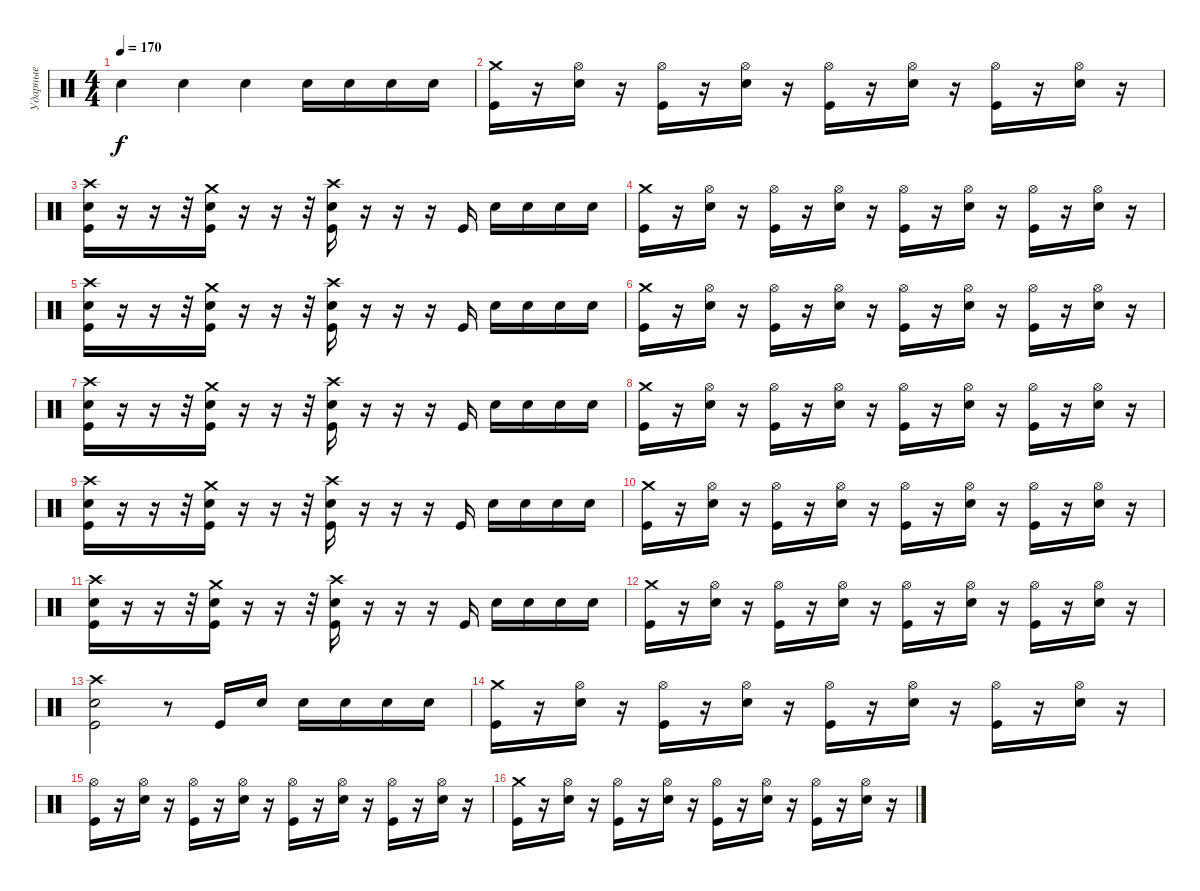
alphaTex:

\track ("Ударные" "Ударные") {instrument percussion}
\staff {score}
\articulation defaults
\ts (4 4)
\tempo 170
\clef neutral
\ks c "Electric Snare (hit)".4{dy f} "Electric Snare (hit)".4 "Electric Snare (hit)".4 "Electric Snare (hit)".16 "Electric Snare (hit)".16 "Electric Snare (hit)".16 "Electric Snare (hit)".16
|
("Crash medium (hit)" "Kick (hit)").16 r.16 ("Hi-Hat (open)" "Electric Snare (hit)").16 r.16 ("Hi-Hat (open)" "Kick (hit)").16 r.16 ("Hi-Hat (open)" "Electric Snare (hit)").16 r.16 ("Hi-Hat (open)" "Kick (hit)").16 r.16 ("Hi-Hat (open)" "Electric Snare (hit)").16 r.16 ("Hi-Hat (open)" "Kick (hit)").16 r.16 ("Hi-Hat (open)" "Electric Snare (hit)").16 r.16 |
("Crash high (hit)" "Electric Snare (hit)" "Kick (hit)").16 r.16 r.16 r.32 ("Crash medium (hit)" "Electric Snare (hit)" "Kick (hit)").16 r.16 r.16 r.32 ("Crash high (hit)" "Electric Snare (hit)" "Kick (hit)").16 r.16 r.16 r.16 "Kick (hit)".16 "Electric Snare (hit)".16 "Electric Snare (hit)".16 "Electric Snare (hit)".16 "Electric Snare (hit)".16 |
("Crash medium (hit)" "Kick (hit)").16 r.16 ("Hi-Hat (open)" "Electric Snare (hit)").16 r.16 ("Hi-Hat (open)" "Kick (hit)").16 r.16 ("Hi-Hat (open)" "Electric Snare (hit)").16 r.16 ("Hi-Hat (open)" "Kick (hit)").16 r.16 ("Hi-Hat (open)" "Electric Snare (hit)").16 r.16 ("Hi-Hat (open)" "Kick (hit)").16 r.16 ("Hi-Hat (open)" "Electric Snare (hit)").16 r.16 |
("Crash high (hit)" "Electric Snare (hit)" "Kick (hit)").16 r.16 r.16 r.32 ("Crash medium (hit)" "Electric Snare (hit)" "Kick (hit)").16 r.16 r.16 r.32 ("Crash high (hit)" "Electric Snare (hit)" "Kick (hit)").16 r.16 r.16 r.16 "Kick (hit)".16 "Electric Snare (hit)".16 "Electric Snare (hit)".16 "Electric Snare (hit)".16 "Electric Snare (hit)".16 |
("Crash medium (hit)" "Kick (hit)").16 r.16 ("Hi-Hat (open)" "Electric Snare (hit)").16 r.16 ("Hi-Hat (open)" "Kick (hit)").16 r.16 ("Hi-Hat (open)" "Electric Snare (hit)").16 r.16 ("Hi-Hat (open)" "Kick (hit)").16 r.16 ("Hi-Hat (open)" "Electric Snare (hit)").16 r.16 ("Hi-Hat (open)" "Kick (hit)").16 r.16 ("Hi-Hat (open)" "Electric Snare (hit)").16 r.16 |
("Crash high (hit)" "Electric Snare (hit)" "Kick (hit)").16 r.16 r.16 r.32 ("Crash medium (hit)" "Electric Snare (hit)" "Kick (hit)").16 r.16 r.16 r.32 ("Crash high (hit)" "Electric Snare (hit)" "Kick (hit)").16 r.16 r.16 r.16 "Kick (hit)".16 "Electric Snare (hit)".16 "Electric Snare (hit)".16 "Electric Snare (hit)".16 "Electric Snare (hit)".16 |
("Crash medium (hit)" "Kick (hit)").16 r.16 ("Hi-Hat (open)" "Electric Snare (hit)").16 r.16 ("Hi-Hat (open)" "Kick (hit)").16 r.16 ("Hi-Hat (open)" "Electric Snare (hit)").16 r.16 ("Hi-Hat (open)" "Kick (hit)").16 r.16 ("Hi-Hat (open)" "Electric Snare (hit)").16 r.16 ("Hi-Hat (open)" "Kick (hit)").16 r.16 ("Hi-Hat (open)" "Electric Snare (hit)").16 r.16 |
("Crash high (hit)" "Electric Snare (hit)" "Kick (hit)").16 r.16 r.16 r.32 ("Crash medium (hit)" "Electric Snare (hit)" "Kick (hit)").16 r.16 r.16 r.32 ("Crash high (hit)" "Electric Snare (hit)" "Kick (hit)").16 r.16 r.16 r.16 "Kick (hit)".16 "Electric Snare (hit)".16 "Electric Snare (hit)".16 "Electric Snare (hit)".16 "Electric Snare (hit)".16 |
("Crash medium (hit)" "Kick (hit)").16 r.16 ("Hi-Hat (open)" "Electric Snare (hit)").16 r.16 ("Hi-Hat (open)" "Kick (hit)").16 r.16 ("Hi-Hat (open)" "Electric Snare (hit)").16 r.16 ("Hi-Hat (open)" "Kick (hit)").16 r.16 ("Hi-Hat (open)" "Electric Snare (hit)").16 r.16 ("Hi-Hat (open)" "Kick (hit)").16 r.16 ("Hi-Hat (open)" "Electric Snare (hit)").16 r.16 |
("Crash high (hit)" "Electric Snare (hit)" "Kick (hit)").16 r.16 r.16 r.32 ("Crash medium (hit)" "Electric Snare (hit)" "Kick (hit)").16 r.16 r.16 r.32 ("Crash high (hit)" "Electric Snare (hit)" "Kick (hit)").16 r.16 r.16 r.16 "Kick (hit)".16 "Electric Snare (hit)".16 "Electric Snare (hit)".16 "Electric Snare (hit)".16 "Electric Snare (hit)".16 |
("Crash medium (hit)" "Kick (hit)").16 r.16 ("Hi-Hat (open)" "Electric Snare (hit)").16 r.16 ("Hi-Hat (open)" "Kick (hit)").16 r.16 ("Hi-Hat (open)" "Electric Snare (hit)").16 r.16 ("Hi-Hat (open)" "Kick (hit)").16 r.16 ("Hi-Hat (open)" "Electric Snare (hit)").16 r.16 ("Hi-Hat (open)" "Kick (hit)").16 r.16 ("Hi-Hat (open)" "Electric Snare (hit)").16 r.16 |
("Crash high (hit)" "Electric Snare (hit)" "Kick (hit)").2 r.8 "Kick (hit)".16 "Electric Snare (hit)".16 "Electric Snare (hit)".16 "Electric Snare (hit)".16 "Electric Snare (hit)".16 "Electric Snare (hit)".16 |
("Crash medium (hit)" "Kick (hit)").16 r.16 ("Hi-Hat (open)" "Electric Snare (hit)").16 r.16 ("Hi-Hat (open)" "Kick (hit)").16 r.16 ("Hi-Hat (open)" "Electric Snare (hit)").16 r.16 ("Hi-Hat (open)" "Kick (hit)").16 r.16 ("Hi-Hat (open)" "Electric Snare (hit)").16 r.16 ("Hi-Hat (open)" "Kick (hit)").16 r.16 ("Hi-Hat (open)" "Electric Snare (hit)").16 r.16 |
("Hi-Hat (open)" "Kick (hit)").16 r.16 ("Hi-Hat (open)" "Electric Snare (hit)").16 r.16 ("Hi-Hat (open)" "Kick (hit)").16 r.16 ("Hi-Hat (open)" "Electric Snare (hit)").16 r.16 ("Hi-Hat (open)" "Kick (hit)").16 r.16 ("Hi-Hat (open)" "Electric Snare (hit)").16 r.16 ("Hi-Hat (open)" "Kick (hit)").16 r.16 ("Hi-Hat (open)" "Electric Snare (hit)").16 r.16 |
("Crash medium (hit)" "Kick (hit)").16 r.16 ("Hi-Hat (open)" "Electric Snare (hit)").16 r.16 ("Hi-Hat (open)" "Kick (hit)").16 r.16 ("Hi-Hat (open)" "Electric Snare (hit)").16 r.16 ("Hi-Hat (open)" "Kick (hit)").16 r.16 ("Hi-Hat (open)" "Electric Snare (hit)").16 r.16 ("Hi-Hat (open)" "Kick (hit)").16 r.16 ("Hi-Hat (open)" "Electric Snare (hit)").16 r.16
